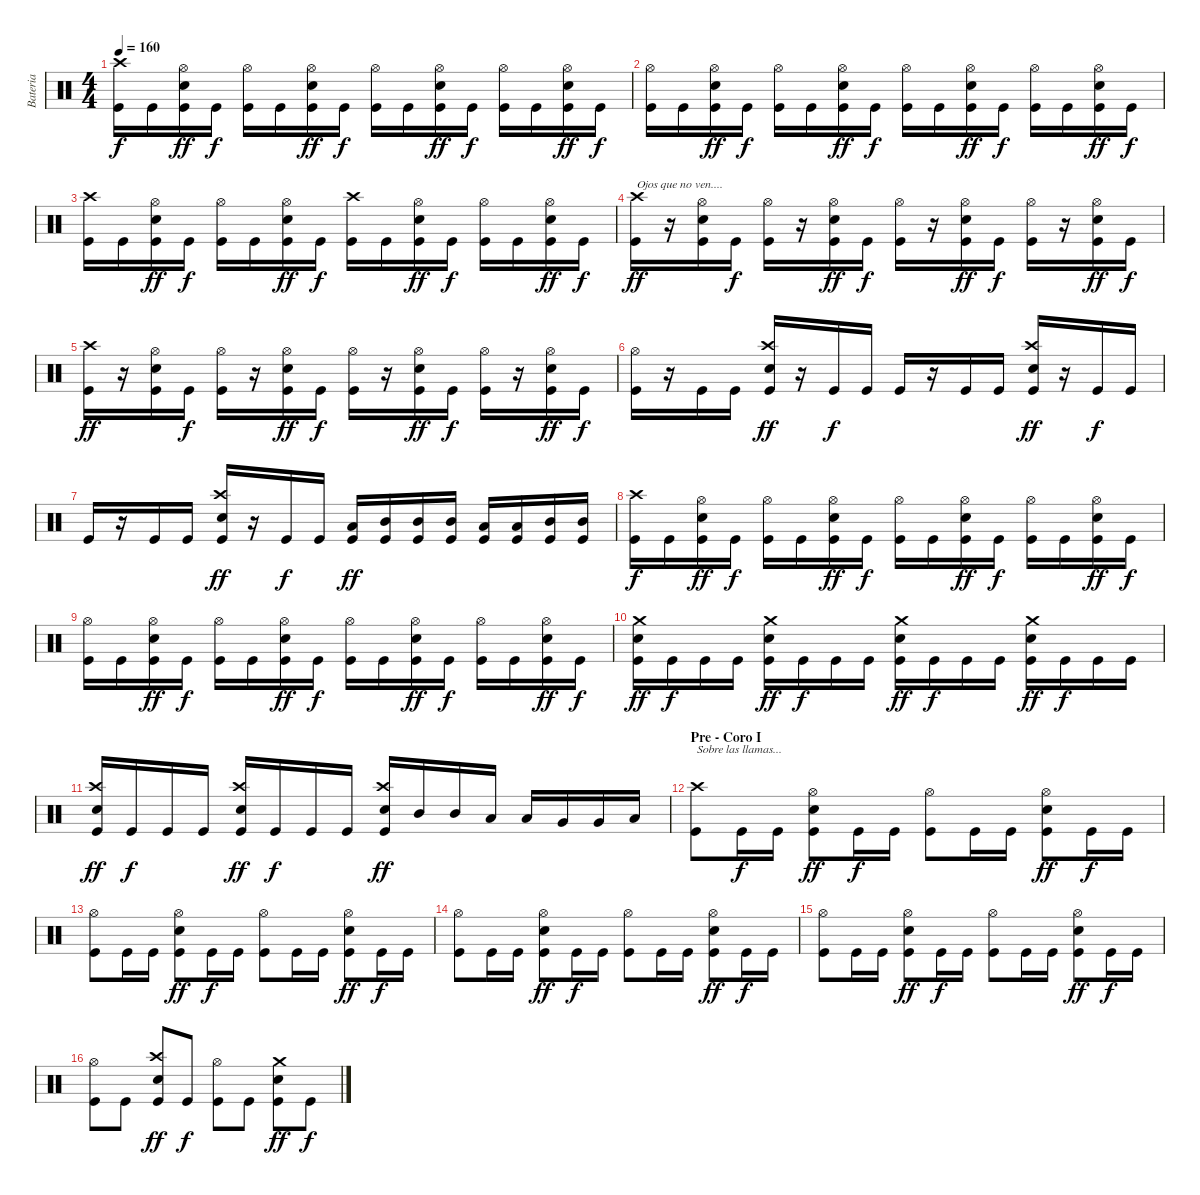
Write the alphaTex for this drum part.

\track ("Bateria" "Bateria") {instrument percussion}
\staff {score}
\articulation defaults
\ts (4 4)
\tempo 160
\clef neutral
\ks c
("Kick (hit)" "Crash high (hit)").16{dy f} "Kick (hit)".16 ("Kick (hit)" "Electric Snare (hit)" "Hi-Hat (open)").16{dy ff} "Kick (hit)".16{dy f} ("Kick (hit)" "Hi-Hat (open)").16 "Kick (hit)".16 ("Kick (hit)" "Electric Snare (hit)" "Hi-Hat (open)").16{dy ff} "Kick (hit)".16{dy f} ("Kick (hit)" "Hi-Hat (open)").16 "Kick (hit)".16 ("Kick (hit)" "Electric Snare (hit)" "Hi-Hat (open)").16{dy ff} "Kick (hit)".16{dy f} ("Kick (hit)" "Hi-Hat (open)").16 "Kick (hit)".16 ("Kick (hit)" "Electric Snare (hit)" "Hi-Hat (open)").16{dy ff} "Kick (hit)".16{dy f} |
("Kick (hit)" "Hi-Hat (open)").16 "Kick (hit)".16 ("Kick (hit)" "Electric Snare (hit)" "Hi-Hat (open)").16{dy ff} "Kick (hit)".16{dy f} ("Kick (hit)" "Hi-Hat (open)").16 "Kick (hit)".16 ("Kick (hit)" "Electric Snare (hit)" "Hi-Hat (open)").16{dy ff} "Kick (hit)".16{dy f} ("Kick (hit)" "Hi-Hat (open)").16 "Kick (hit)".16 ("Kick (hit)" "Electric Snare (hit)" "Hi-Hat (open)").16{dy ff} "Kick (hit)".16{dy f} ("Kick (hit)" "Hi-Hat (open)").16 "Kick (hit)".16 ("Kick (hit)" "Electric Snare (hit)" "Hi-Hat (open)").16{dy ff} "Kick (hit)".16{dy f} |
("Kick (hit)" "Crash high (hit)").16 "Kick (hit)".16 ("Kick (hit)" "Electric Snare (hit)" "Hi-Hat (open)").16{dy ff} "Kick (hit)".16{dy f} ("Kick (hit)" "Hi-Hat (open)").16 "Kick (hit)".16 ("Kick (hit)" "Electric Snare (hit)" "Hi-Hat (open)").16{dy ff} "Kick (hit)".16{dy f} ("Kick (hit)" "Crash high (hit)").16 "Kick (hit)".16 ("Kick (hit)" "Electric Snare (hit)" "Hi-Hat (open)").16{dy ff} "Kick (hit)".16{dy f} ("Kick (hit)" "Hi-Hat (open)").16 "Kick (hit)".16 ("Kick (hit)" "Electric Snare (hit)" "Hi-Hat (open)").16{dy ff} "Kick (hit)".16{dy f} |
("Kick (hit)" "Crash high (hit)").16{txt "Ojos que no ven...." dy ff} r.16 ("Kick (hit)" "Electric Snare (hit)" "Hi-Hat (open)").16 "Kick (hit)".16{dy f} ("Kick (hit)" "Hi-Hat (open)").16 r.16 ("Kick (hit)" "Electric Snare (hit)" "Hi-Hat (open)").16{dy ff} "Kick (hit)".16{dy f} ("Kick (hit)" "Hi-Hat (open)").16 r.16 ("Kick (hit)" "Electric Snare (hit)" "Hi-Hat (open)").16{dy ff} "Kick (hit)".16{dy f} ("Kick (hit)" "Hi-Hat (open)").16 r.16 ("Kick (hit)" "Electric Snare (hit)" "Hi-Hat (open)").16{dy ff} "Kick (hit)".16{dy f} |
("Kick (hit)" "Crash high (hit)").16{dy ff} r.16 ("Kick (hit)" "Electric Snare (hit)" "Hi-Hat (open)").16 "Kick (hit)".16{dy f} ("Kick (hit)" "Hi-Hat (open)").16 r.16 ("Kick (hit)" "Electric Snare (hit)" "Hi-Hat (open)").16{dy ff} "Kick (hit)".16{dy f} ("Kick (hit)" "Hi-Hat (open)").16 r.16 ("Kick (hit)" "Electric Snare (hit)" "Hi-Hat (open)").16{dy ff} "Kick (hit)".16{dy f} ("Kick (hit)" "Hi-Hat (open)").16 r.16 ("Kick (hit)" "Electric Snare (hit)" "Hi-Hat (open)").16{dy ff} "Kick (hit)".16{dy f} |
("Kick (hit)" "Hi-Hat (open)").16 r.16 "Kick (hit)".16 "Kick (hit)".16 ("Kick (hit)" "Electric Snare (hit)" "Crash high (hit)").16{dy ff} r.16 "Kick (hit)".16{dy f} "Kick (hit)".16 "Kick (hit)".16 r.16 "Kick (hit)".16 "Kick (hit)".16 ("Kick (hit)" "Electric Snare (hit)" "Crash high (hit)").16{dy ff} r.16 "Kick (hit)".16{dy f} "Kick (hit)".16 |
"Kick (hit)".16 r.16 "Kick (hit)".16 "Kick (hit)".16 ("Kick (hit)" "Electric Snare (hit)" "Crash high (hit)").16{dy ff} r.16 "Kick (hit)".16{dy f} "Kick (hit)".16 ("Kick (hit)" "Low Tom (hit)").16{dy ff} ("Kick (hit)" "Mid Tom (hit)").16 ("Kick (hit)" "Mid Tom (hit)").16 ("Kick (hit)" "Mid Tom (hit)").16 ("Kick (hit)" "Low Tom (hit)").16 ("Kick (hit)" "Low Tom (hit)").16 ("Kick (hit)" "Mid Tom (hit)").16 ("Kick (hit)" "Mid Tom (hit)").16 |
("Kick (hit)" "Crash high (hit)").16{dy f} "Kick (hit)".16 ("Kick (hit)" "Electric Snare (hit)" "Hi-Hat (open)").16{dy ff} "Kick (hit)".16{dy f} ("Kick (hit)" "Hi-Hat (open)").16 "Kick (hit)".16 ("Kick (hit)" "Electric Snare (hit)" "Hi-Hat (open)").16{dy ff} "Kick (hit)".16{dy f} ("Kick (hit)" "Hi-Hat (open)").16 "Kick (hit)".16 ("Kick (hit)" "Electric Snare (hit)" "Hi-Hat (open)").16{dy ff} "Kick (hit)".16{dy f} ("Kick (hit)" "Hi-Hat (open)").16 "Kick (hit)".16 ("Kick (hit)" "Electric Snare (hit)" "Hi-Hat (open)").16{dy ff} "Kick (hit)".16{dy f} |
("Kick (hit)" "Hi-Hat (open)").16 "Kick (hit)".16 ("Kick (hit)" "Electric Snare (hit)" "Hi-Hat (open)").16{dy ff} "Kick (hit)".16{dy f} ("Kick (hit)" "Hi-Hat (open)").16 "Kick (hit)".16 ("Kick (hit)" "Electric Snare (hit)" "Hi-Hat (open)").16{dy ff} "Kick (hit)".16{dy f} ("Kick (hit)" "Hi-Hat (open)").16 "Kick (hit)".16 ("Kick (hit)" "Electric Snare (hit)" "Hi-Hat (open)").16{dy ff} "Kick (hit)".16{dy f} ("Kick (hit)" "Hi-Hat (open)").16 "Kick (hit)".16 ("Kick (hit)" "Electric Snare (hit)" "Hi-Hat (open)").16{dy ff} "Kick (hit)".16{dy f} |
("Kick (hit)" "Electric Snare (hit)" "Crash medium (hit)").16{dy ff} "Kick (hit)".16{dy f} "Kick (hit)".16 "Kick (hit)".16 ("Kick (hit)" "Electric Snare (hit)" "Crash medium (hit)").16{dy ff} "Kick (hit)".16{dy f} "Kick (hit)".16 "Kick (hit)".16 ("Kick (hit)" "Electric Snare (hit)" "Crash medium (hit)").16{dy ff} "Kick (hit)".16{dy f} "Kick (hit)".16 "Kick (hit)".16 ("Kick (hit)" "Electric Snare (hit)" "Crash medium (hit)").16{dy ff} "Kick (hit)".16{dy f} "Kick (hit)".16 "Kick (hit)".16 |
("Kick (hit)" "Electric Snare (hit)" "Crash high (hit)").16{dy ff} "Kick (hit)".16{dy f} "Kick (hit)".16 "Kick (hit)".16 ("Kick (hit)" "Electric Snare (hit)" "Crash high (hit)").16{dy ff} "Kick (hit)".16{dy f} "Kick (hit)".16 "Kick (hit)".16 ("Kick (hit)" "Electric Snare (hit)" "Crash high (hit)").16{dy ff} "Mid Tom (hit)".16 "Mid Tom (hit)".16 "Low Tom (hit)".16 "Low Tom (hit)".16 "Very Low Tom (hit)".16 "Very Low Tom (hit)".16 "Low Floor Tom (hit)".16 |
\section ("" "Pre - Coro I")
("Kick (hit)" "Crash high (hit)").8{txt "Sobre las llamas..."} "Kick (hit)".16{dy f} "Kick (hit)".16 ("Kick (hit)" "Electric Snare (hit)" "Hi-Hat (open)").8{dy ff} "Kick (hit)".16{dy f} "Kick (hit)".16 ("Kick (hit)" "Hi-Hat (open)").8 "Kick (hit)".16 "Kick (hit)".16 ("Kick (hit)" "Electric Snare (hit)" "Hi-Hat (open)").8{dy ff} "Kick (hit)".16{dy f} "Kick (hit)".16 |
("Kick (hit)" "Hi-Hat (open)").8 "Kick (hit)".16 "Kick (hit)".16 ("Kick (hit)" "Electric Snare (hit)" "Hi-Hat (open)").8{dy ff} "Kick (hit)".16{dy f} "Kick (hit)".16 ("Kick (hit)" "Hi-Hat (open)").8 "Kick (hit)".16 "Kick (hit)".16 ("Kick (hit)" "Electric Snare (hit)" "Hi-Hat (open)").8{dy ff} "Kick (hit)".16{dy f} "Kick (hit)".16 |
("Kick (hit)" "Hi-Hat (open)").8 "Kick (hit)".16 "Kick (hit)".16 ("Kick (hit)" "Electric Snare (hit)" "Hi-Hat (open)").8{dy ff} "Kick (hit)".16{dy f} "Kick (hit)".16 ("Kick (hit)" "Hi-Hat (open)").8 "Kick (hit)".16 "Kick (hit)".16 ("Kick (hit)" "Electric Snare (hit)" "Hi-Hat (open)").8{dy ff} "Kick (hit)".16{dy f} "Kick (hit)".16 |
("Kick (hit)" "Hi-Hat (open)").8 "Kick (hit)".16 "Kick (hit)".16 ("Kick (hit)" "Electric Snare (hit)" "Hi-Hat (open)").8{dy ff} "Kick (hit)".16{dy f} "Kick (hit)".16 ("Kick (hit)" "Hi-Hat (open)").8 "Kick (hit)".16 "Kick (hit)".16 ("Kick (hit)" "Electric Snare (hit)" "Hi-Hat (open)").8{dy ff} "Kick (hit)".16{dy f} "Kick (hit)".16 |
("Kick (hit)" "Hi-Hat (open)").8 "Kick (hit)".8 ("Kick (hit)" "Electric Snare (hit)" "Crash high (hit)").8{dy ff} "Kick (hit)".8{dy f} ("Kick (hit)" "Hi-Hat (open)").8 "Kick (hit)".8 ("Kick (hit)" "Electric Snare (hit)" "Crash medium (hit)").8{dy ff} "Kick (hit)".8{dy f}
